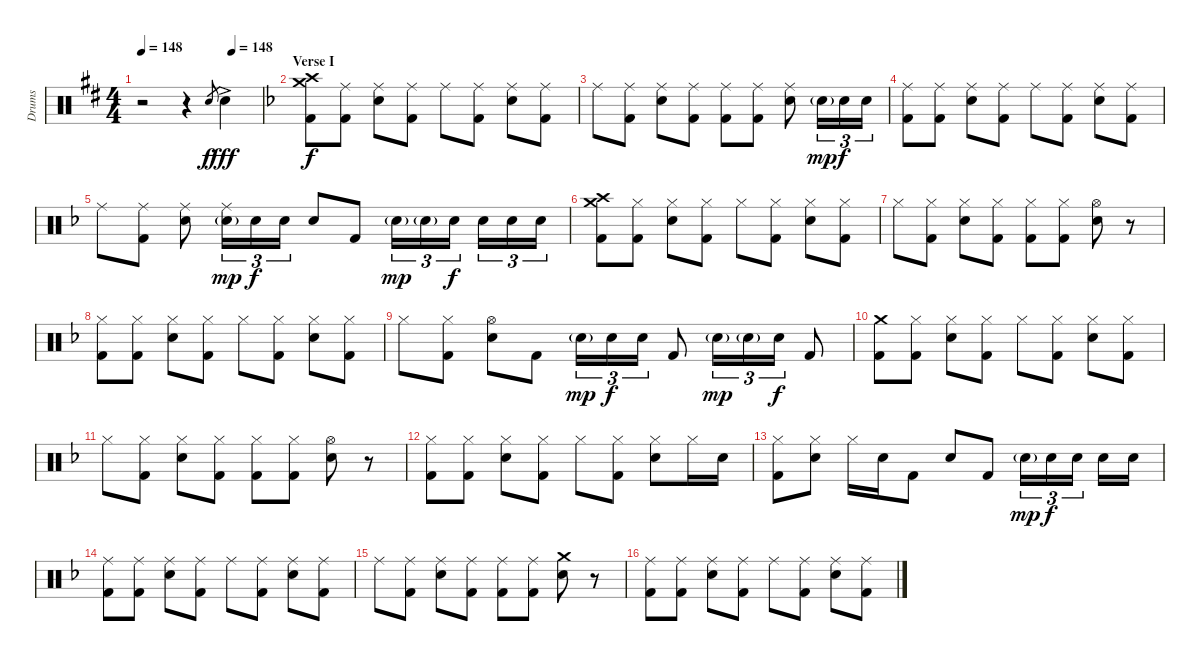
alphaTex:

\track ("Drums" "Drums") {instrument percussion}
\staff {score}
\articulation defaults
\ts (4 4)
\tempo 148
\tempo (148 0.75)
\clef neutral
\ks d
r.2{dy mp} r.4 "Snare (hit) 2".8{gr dy f} "Snare (hit) 2"{ac}.4{dy fff} |
\section ("" "Verse I")
\ks dminor
("Crash high (hit)" "Crash medium (hit)" "Kick (hit) 2").8{dy f} ("Ride (middle)" "Kick (hit) 2").8 ("Ride (middle)" "Snare (hit) 2").8 ("Ride (middle)" "Kick (hit) 2").8 "Ride (middle)".8 ("Ride (middle)" "Kick (hit) 2").8 ("Ride (middle)" "Snare (hit) 2").8 ("Ride (middle)" "Kick (hit) 2").8 |
"Ride (middle)".8 ("Ride (middle)" "Kick (hit) 2").8 ("Ride (middle)" "Snare (hit) 2").8 ("Ride (middle)" "Kick (hit) 2").8 ("Ride (middle)" "Kick (hit) 2").8 ("Ride (middle)" "Kick (hit) 2").8 ("Ride (middle)" "Snare (hit) 2").8 "Snare (hit) 2"{g}.16{tu (3 2) dy mp} "Snare (hit) 2".16{tu (3 2) dy f} "Snare (hit) 2".16{tu (3 2)} |
("Ride (middle)" "Kick (hit) 2").8 ("Ride (middle)" "Kick (hit) 2").8 ("Ride (middle)" "Snare (hit) 2").8 ("Ride (middle)" "Kick (hit) 2").8 "Ride (middle)".8 ("Ride (middle)" "Kick (hit) 2").8 ("Ride (middle)" "Snare (hit) 2").8 ("Ride (middle)" "Kick (hit) 2").8 |
"Ride (middle)".8 ("Ride (middle)" "Kick (hit) 2").8 ("Ride (middle)" "Snare (hit) 2").8 ("Ride (middle)" "Snare (hit) 2"{g}).16{tu (3 2) dy mp} "Snare (hit) 2".16{tu (3 2) dy f} "Snare (hit) 2".16{tu (3 2)} "Snare (hit) 2".8 "Kick (hit) 2".8 "Snare (hit) 2"{g}.16{tu (3 2) dy mp} "Snare (hit) 2"{g}.16{tu (3 2)} "Snare (hit) 2".16{tu (3 2) dy f} "Snare (hit) 2".16{tu (3 2)} "Snare (hit) 2".16{tu (3 2)} "Snare (hit) 2".16{tu (3 2)} |
("Crash high (hit)" "Crash medium (hit)" "Kick (hit) 2").8 ("Hi-Hat (closed)" "Kick (hit) 2").8 ("Hi-Hat (closed)" "Snare (hit) 2").8 ("Hi-Hat (closed)" "Kick (hit) 2").8 "Hi-Hat (closed)".8 ("Hi-Hat (closed)" "Kick (hit) 2").8 ("Hi-Hat (closed)" "Snare (hit) 2").8 ("Hi-Hat (closed)" "Kick (hit) 2").8 |
"Hi-Hat (closed)".8 ("Hi-Hat (closed)" "Kick (hit) 2").8 ("Hi-Hat (closed)" "Snare (hit) 2").8 ("Hi-Hat (closed)" "Kick (hit) 2").8 ("Hi-Hat (closed)" "Kick (hit) 2").8 ("Hi-Hat (closed)" "Kick (hit) 2").8 ("Hi-Hat (open)" "Snare (hit) 2").8 r.8 |
("Hi-Hat (closed)" "Kick (hit) 2").8 ("Hi-Hat (closed)" "Kick (hit) 2").8 ("Hi-Hat (closed)" "Snare (hit) 2").8 ("Hi-Hat (closed)" "Kick (hit) 2").8 "Hi-Hat (closed)".8 ("Hi-Hat (closed)" "Kick (hit) 2").8 ("Hi-Hat (closed)" "Snare (hit) 2").8 ("Hi-Hat (closed)" "Kick (hit) 2").8 |
"Hi-Hat (closed)".8 ("Hi-Hat (closed)" "Kick (hit) 2").8 ("Hi-Hat (open)" "Snare (hit) 2").8 "Kick (hit) 2".8 "Snare (hit) 2"{g}.16{tu (3 2) dy mp} "Snare (hit) 2".16{tu (3 2) dy f} "Snare (hit) 2".16{tu (3 2)} "Kick (hit) 2".8 "Snare (hit) 2"{g}.16{tu (3 2) dy mp} "Snare (hit) 2"{g}.16{tu (3 2)} "Snare (hit) 2".16{tu (3 2) dy f} "Kick (hit) 2".8 |
("Crash medium (hit)" "Kick (hit) 2").8 ("Hi-Hat (closed)" "Kick (hit) 2").8 ("Hi-Hat (closed)" "Snare (hit) 2").8 ("Hi-Hat (closed)" "Kick (hit) 2").8 "Hi-Hat (closed)".8 ("Hi-Hat (closed)" "Kick (hit) 2").8 ("Hi-Hat (closed)" "Snare (hit) 2").8 ("Hi-Hat (closed)" "Kick (hit) 2").8 |
"Hi-Hat (closed)".8 ("Hi-Hat (closed)" "Kick (hit) 2").8 ("Hi-Hat (closed)" "Snare (hit) 2").8 ("Hi-Hat (closed)" "Kick (hit) 2").8 ("Hi-Hat (closed)" "Kick (hit) 2").8 ("Hi-Hat (closed)" "Kick (hit) 2").8 ("Hi-Hat (open)" "Snare (hit) 2").8 r.8 |
("Hi-Hat (closed)" "Kick (hit) 2").8 ("Hi-Hat (closed)" "Kick (hit) 2").8 ("Hi-Hat (closed)" "Snare (hit) 2").8 ("Hi-Hat (closed)" "Kick (hit) 2").8 "Hi-Hat (closed)".8 ("Hi-Hat (closed)" "Kick (hit) 2").8 ("Hi-Hat (closed)" "Snare (hit) 2").8 "Hi-Hat (closed)".16 "Snare (hit) 2".16 |
("Hi-Hat (closed)" "Kick (hit) 2").8 ("Hi-Hat (closed)" "Snare (hit) 2").8 "Hi-Hat (closed)".16 "Snare (hit) 2".16 "Kick (hit) 2".8 "Snare (hit) 2".8 "Kick (hit) 2".8 "Snare (hit) 2"{g}.16{tu (3 2) dy mp} "Snare (hit) 2".16{tu (3 2) dy f} "Snare (hit) 2".16{tu (3 2)} "Snare (hit) 2".16 "Snare (hit) 2".16 |
("Ride (middle)" "Kick (hit) 2").8 ("Ride (middle)" "Kick (hit) 2").8 ("Ride (middle)" "Snare (hit) 2").8 ("Ride (middle)" "Kick (hit) 2").8 "Ride (middle)".8 ("Ride (middle)" "Kick (hit) 2").8 ("Ride (middle)" "Snare (hit) 2").8 ("Ride (middle)" "Kick (hit) 2").8 |
"Ride (middle)".8 ("Ride (middle)" "Kick (hit) 2").8 ("Ride (middle)" "Snare (hit) 2").8 ("Ride (middle)" "Kick (hit) 2").8 ("Ride (middle)" "Kick (hit) 2").8 ("Ride (middle)" "Kick (hit) 2").8 ("Crash medium (hit)" "Snare (hit) 2").8 r.8 |
("Ride (middle)" "Kick (hit) 2").8 ("Ride (middle)" "Kick (hit) 2").8 ("Ride (middle)" "Snare (hit) 2").8 ("Ride (middle)" "Kick (hit) 2").8 "Ride (middle)".8 ("Ride (middle)" "Kick (hit) 2").8 ("Ride (middle)" "Snare (hit) 2").8 ("Ride (middle)" "Kick (hit) 2").8
